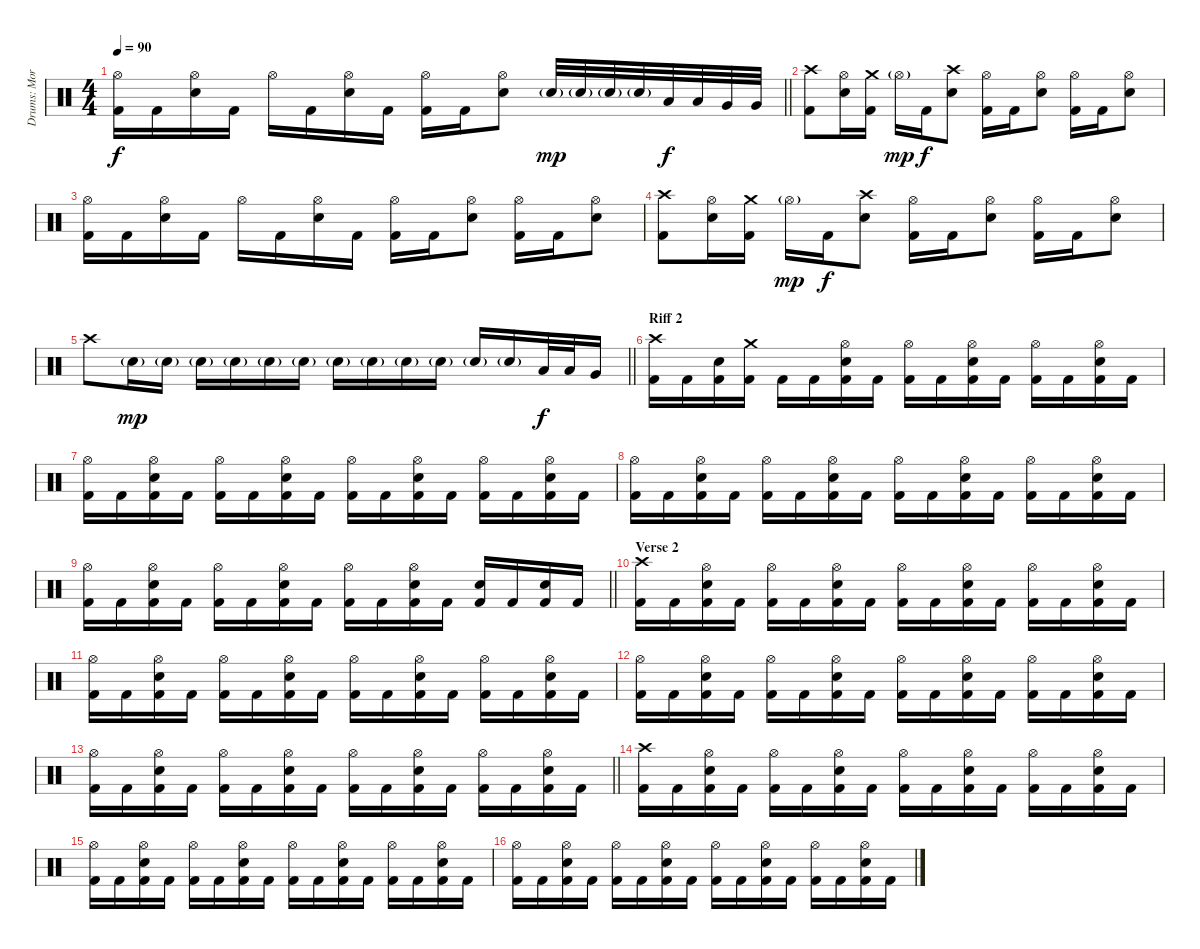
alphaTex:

\track ("Drums: Morten Færøvig" "Drums: Mor") {instrument percussion}
\staff {score}
\articulation defaults
\ts (4 4)
\tempo 90
\clef neutral
\barLineRight lightlight
\ks aminor
("Hi-Hat (open)" "Kick (hit) 2").16{dy f} "Kick (hit) 2".16 ("Hi-Hat (open)" "Electric Snare (hit)").16 "Kick (hit) 2".16 "Hi-Hat (open)".16 "Kick (hit) 2".16 ("Hi-Hat (open)" "Electric Snare (hit)").16 "Kick (hit) 2".16 ("Hi-Hat (open)" "Kick (hit) 2").16 "Kick (hit) 2".16 ("Hi-Hat (open)" "Electric Snare (hit)").8 "Electric Snare (hit)"{g}.32{dy mp} "Electric Snare (hit)"{g}.32 "Electric Snare (hit)"{g}.32 "Electric Snare (hit)"{g}.32 "Low Tom (hit)".32{dy f} "Low Tom (hit)".32 "Very Low Tom (hit)".32 "Very Low Tom (hit)".32 |
("Crash high (hit)" "Kick (hit) 2").8 ("Hi-Hat (open)" "Electric Snare (hit)").16 ("Crash medium (hit)" "Kick (hit) 2").16 "Hi-Hat (open)"{g}.16{dy mp} "Kick (hit) 2".16{dy f} ("Crash high (hit)" "Electric Snare (hit)").8 ("Hi-Hat (open)" "Kick (hit) 2").16 "Kick (hit) 2".16 ("Hi-Hat (open)" "Electric Snare (hit)").8 ("Hi-Hat (open)" "Kick (hit) 2").16 "Kick (hit) 2".16 ("Hi-Hat (open)" "Electric Snare (hit)").8 |
("Hi-Hat (open)" "Kick (hit) 2").16 "Kick (hit) 2".16 ("Hi-Hat (open)" "Electric Snare (hit)").16 "Kick (hit) 2".16 "Hi-Hat (open)".16 "Kick (hit) 2".16 ("Hi-Hat (open)" "Electric Snare (hit)").16 "Kick (hit) 2".16 ("Hi-Hat (open)" "Kick (hit) 2").16 "Kick (hit) 2".16 ("Hi-Hat (open)" "Electric Snare (hit)").8 ("Hi-Hat (open)" "Kick (hit) 2").16 "Kick (hit) 2".16 ("Hi-Hat (open)" "Electric Snare (hit)").8 |
("Crash high (hit)" "Kick (hit) 2").8 ("Hi-Hat (open)" "Electric Snare (hit)").16 ("Crash medium (hit)" "Kick (hit) 2").16 "Hi-Hat (open)"{g}.16{dy mp} "Kick (hit) 2".16{dy f} ("Crash high (hit)" "Electric Snare (hit)").8 ("Hi-Hat (open)" "Kick (hit) 2").16 "Kick (hit) 2".16 ("Hi-Hat (open)" "Electric Snare (hit)").8 ("Hi-Hat (open)" "Kick (hit) 2").16 "Kick (hit) 2".16 ("Hi-Hat (open)" "Electric Snare (hit)").8 |
\barLineRight lightlight "Crash high (hit)".8 "Electric Snare (hit)"{g}.16{dy mp} "Electric Snare (hit)"{g}.16 "Electric Snare (hit)"{g}.16 "Electric Snare (hit)"{g}.16 "Electric Snare (hit)"{g}.16 "Electric Snare (hit)"{g}.16 "Electric Snare (hit)"{g}.16 "Electric Snare (hit)"{g}.16 "Electric Snare (hit)"{g}.16 "Electric Snare (hit)"{g}.16 "Electric Snare (hit)"{g}.16 "Electric Snare (hit)"{g}.16 "Low Tom (hit)".32{dy f} "Low Tom (hit)".32 "Very Low Tom (hit)".16
|
\section ("" "Riff 2")
("Crash high (hit)" "Kick (hit) 2").16 "Kick (hit) 2".16 ("Electric Snare (hit)" "Kick (hit) 2").16 ("Crash medium (hit)" "Kick (hit) 2").16 "Kick (hit) 2".16 "Kick (hit) 2".16 ("Hi-Hat (open)" "Electric Snare (hit)" "Kick (hit) 2").16 "Kick (hit) 2".16 ("Hi-Hat (open)" "Kick (hit) 2").16 "Kick (hit) 2".16 ("Hi-Hat (open)" "Electric Snare (hit)" "Kick (hit) 2").16 "Kick (hit) 2".16 ("Hi-Hat (open)" "Kick (hit) 2").16 "Kick (hit) 2".16 ("Hi-Hat (open)" "Electric Snare (hit)" "Kick (hit) 2").16 "Kick (hit) 2".16 |
("Hi-Hat (open)" "Kick (hit) 2").16 "Kick (hit) 2".16 ("Hi-Hat (open)" "Electric Snare (hit)" "Kick (hit) 2").16 "Kick (hit) 2".16 ("Hi-Hat (open)" "Kick (hit) 2").16 "Kick (hit) 2".16 ("Hi-Hat (open)" "Electric Snare (hit)" "Kick (hit) 2").16 "Kick (hit) 2".16 ("Hi-Hat (open)" "Kick (hit) 2").16 "Kick (hit) 2".16 ("Hi-Hat (open)" "Electric Snare (hit)" "Kick (hit) 2").16 "Kick (hit) 2".16 ("Hi-Hat (open)" "Kick (hit) 2").16 "Kick (hit) 2".16 ("Hi-Hat (open)" "Electric Snare (hit)" "Kick (hit) 2").16 "Kick (hit) 2".16 |
("Hi-Hat (open)" "Kick (hit) 2").16 "Kick (hit) 2".16 ("Hi-Hat (open)" "Electric Snare (hit)" "Kick (hit) 2").16 "Kick (hit) 2".16 ("Hi-Hat (open)" "Kick (hit) 2").16 "Kick (hit) 2".16 ("Hi-Hat (open)" "Electric Snare (hit)" "Kick (hit) 2").16 "Kick (hit) 2".16 ("Hi-Hat (open)" "Kick (hit) 2").16 "Kick (hit) 2".16 ("Hi-Hat (open)" "Electric Snare (hit)" "Kick (hit) 2").16 "Kick (hit) 2".16 ("Hi-Hat (open)" "Kick (hit) 2").16 "Kick (hit) 2".16 ("Hi-Hat (open)" "Electric Snare (hit)" "Kick (hit) 2").16 "Kick (hit) 2".16 |
\barLineRight lightlight
("Hi-Hat (open)" "Kick (hit) 2").16 "Kick (hit) 2".16 ("Hi-Hat (open)" "Electric Snare (hit)" "Kick (hit) 2").16 "Kick (hit) 2".16 ("Hi-Hat (open)" "Kick (hit) 2").16 "Kick (hit) 2".16 ("Hi-Hat (open)" "Electric Snare (hit)" "Kick (hit) 2").16 "Kick (hit) 2".16 ("Hi-Hat (open)" "Kick (hit) 2").16 "Kick (hit) 2".16 ("Hi-Hat (open)" "Electric Snare (hit)" "Kick (hit) 2").16 "Kick (hit) 2".16 ("Electric Snare (hit)" "Kick (hit) 2").16 "Kick (hit) 2".16 ("Electric Snare (hit)" "Kick (hit) 2").16 "Kick (hit) 2".16 |
\section ("" "Verse 2")
("Crash high (hit)" "Kick (hit) 2").16 "Kick (hit) 2".16 ("Hi-Hat (open)" "Electric Snare (hit)" "Kick (hit) 2").16 "Kick (hit) 2".16 ("Hi-Hat (open)" "Kick (hit) 2").16 "Kick (hit) 2".16 ("Hi-Hat (open)" "Electric Snare (hit)" "Kick (hit) 2").16 "Kick (hit) 2".16 ("Hi-Hat (open)" "Kick (hit) 2").16 "Kick (hit) 2".16 ("Hi-Hat (open)" "Electric Snare (hit)" "Kick (hit) 2").16 "Kick (hit) 2".16 ("Hi-Hat (open)" "Kick (hit) 2").16 "Kick (hit) 2".16 ("Hi-Hat (open)" "Electric Snare (hit)" "Kick (hit) 2").16 "Kick (hit) 2".16 |
("Hi-Hat (open)" "Kick (hit) 2").16 "Kick (hit) 2".16 ("Hi-Hat (open)" "Electric Snare (hit)" "Kick (hit) 2").16 "Kick (hit) 2".16 ("Hi-Hat (open)" "Kick (hit) 2").16 "Kick (hit) 2".16 ("Hi-Hat (open)" "Electric Snare (hit)" "Kick (hit) 2").16 "Kick (hit) 2".16 ("Hi-Hat (open)" "Kick (hit) 2").16 "Kick (hit) 2".16 ("Hi-Hat (open)" "Electric Snare (hit)" "Kick (hit) 2").16 "Kick (hit) 2".16 ("Hi-Hat (open)" "Kick (hit) 2").16 "Kick (hit) 2".16 ("Hi-Hat (open)" "Electric Snare (hit)" "Kick (hit) 2").16 "Kick (hit) 2".16 |
("Hi-Hat (open)" "Kick (hit) 2").16 "Kick (hit) 2".16 ("Hi-Hat (open)" "Electric Snare (hit)" "Kick (hit) 2").16 "Kick (hit) 2".16 ("Hi-Hat (open)" "Kick (hit) 2").16 "Kick (hit) 2".16 ("Hi-Hat (open)" "Electric Snare (hit)" "Kick (hit) 2").16 "Kick (hit) 2".16 ("Hi-Hat (open)" "Kick (hit) 2").16 "Kick (hit) 2".16 ("Hi-Hat (open)" "Electric Snare (hit)" "Kick (hit) 2").16 "Kick (hit) 2".16 ("Hi-Hat (open)" "Kick (hit) 2").16 "Kick (hit) 2".16 ("Hi-Hat (open)" "Electric Snare (hit)" "Kick (hit) 2").16 "Kick (hit) 2".16 |
\barLineRight lightlight
("Hi-Hat (open)" "Kick (hit) 2").16 "Kick (hit) 2".16 ("Hi-Hat (open)" "Electric Snare (hit)" "Kick (hit) 2").16 "Kick (hit) 2".16 ("Hi-Hat (open)" "Kick (hit) 2").16 "Kick (hit) 2".16 ("Hi-Hat (open)" "Electric Snare (hit)" "Kick (hit) 2").16 "Kick (hit) 2".16 ("Hi-Hat (open)" "Kick (hit) 2").16 "Kick (hit) 2".16 ("Hi-Hat (open)" "Electric Snare (hit)" "Kick (hit) 2").16 "Kick (hit) 2".16 ("Hi-Hat (open)" "Kick (hit) 2").16 "Kick (hit) 2".16 ("Hi-Hat (open)" "Electric Snare (hit)" "Kick (hit) 2").16 "Kick (hit) 2".16 |
("Crash high (hit)" "Kick (hit) 2").16 "Kick (hit) 2".16 ("Hi-Hat (open)" "Electric Snare (hit)" "Kick (hit) 2").16 "Kick (hit) 2".16 ("Hi-Hat (open)" "Kick (hit) 2").16 "Kick (hit) 2".16 ("Hi-Hat (open)" "Electric Snare (hit)" "Kick (hit) 2").16 "Kick (hit) 2".16 ("Hi-Hat (open)" "Kick (hit) 2").16 "Kick (hit) 2".16 ("Hi-Hat (open)" "Electric Snare (hit)" "Kick (hit) 2").16 "Kick (hit) 2".16 ("Hi-Hat (open)" "Kick (hit) 2").16 "Kick (hit) 2".16 ("Hi-Hat (open)" "Electric Snare (hit)" "Kick (hit) 2").16 "Kick (hit) 2".16 |
("Hi-Hat (open)" "Kick (hit) 2").16 "Kick (hit) 2".16 ("Hi-Hat (open)" "Electric Snare (hit)" "Kick (hit) 2").16 "Kick (hit) 2".16 ("Hi-Hat (open)" "Kick (hit) 2").16 "Kick (hit) 2".16 ("Hi-Hat (open)" "Electric Snare (hit)" "Kick (hit) 2").16 "Kick (hit) 2".16 ("Hi-Hat (open)" "Kick (hit) 2").16 "Kick (hit) 2".16 ("Hi-Hat (open)" "Electric Snare (hit)" "Kick (hit) 2").16 "Kick (hit) 2".16 ("Hi-Hat (open)" "Kick (hit) 2").16 "Kick (hit) 2".16 ("Hi-Hat (open)" "Electric Snare (hit)" "Kick (hit) 2").16 "Kick (hit) 2".16 |
("Hi-Hat (open)" "Kick (hit) 2").16 "Kick (hit) 2".16 ("Hi-Hat (open)" "Electric Snare (hit)" "Kick (hit) 2").16 "Kick (hit) 2".16 ("Hi-Hat (open)" "Kick (hit) 2").16 "Kick (hit) 2".16 ("Hi-Hat (open)" "Electric Snare (hit)" "Kick (hit) 2").16 "Kick (hit) 2".16 ("Hi-Hat (open)" "Kick (hit) 2").16 "Kick (hit) 2".16 ("Hi-Hat (open)" "Electric Snare (hit)" "Kick (hit) 2").16 "Kick (hit) 2".16 ("Hi-Hat (open)" "Kick (hit) 2").16 "Kick (hit) 2".16 ("Hi-Hat (open)" "Electric Snare (hit)" "Kick (hit) 2").16 "Kick (hit) 2".16
